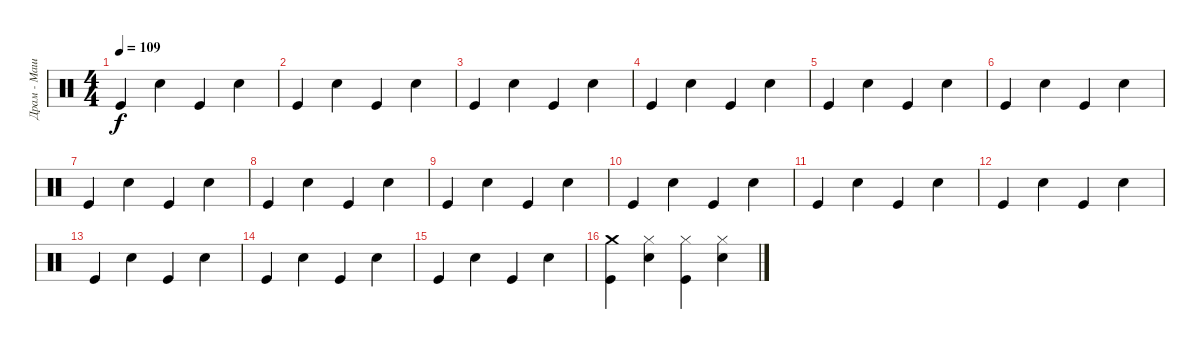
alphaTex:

\track ("Драм - Машина" "Драм - Маш") {instrument percussion}
\staff {score}
\articulation defaults
\ts (4 4)
\tempo 109
\clef neutral
\ks c "Kick (hit)".4{dy f} "Snare (hit) 2".4 "Kick (hit)".4 "Snare (hit) 2".4
|
"Kick (hit)".4 "Snare (hit) 2".4 "Kick (hit)".4 "Snare (hit) 2".4 |
"Kick (hit)".4 "Snare (hit) 2".4 "Kick (hit)".4 "Snare (hit) 2".4 |
"Kick (hit)".4 "Snare (hit) 2".4 "Kick (hit)".4 "Snare (hit) 2".4 |
"Kick (hit)".4 "Snare (hit) 2".4 "Kick (hit)".4 "Snare (hit) 2".4 |
"Kick (hit)".4 "Snare (hit) 2".4 "Kick (hit)".4 "Snare (hit) 2".4 |
"Kick (hit)".4 "Snare (hit) 2".4 "Kick (hit)".4 "Snare (hit) 2".4 |
"Kick (hit)".4 "Snare (hit) 2".4 "Kick (hit)".4 "Snare (hit) 2".4 |
"Kick (hit)".4 "Snare (hit) 2".4 "Kick (hit)".4 "Snare (hit) 2".4 |
"Kick (hit)".4 "Snare (hit) 2".4 "Kick (hit)".4 "Snare (hit) 2".4 |
"Kick (hit)".4 "Snare (hit) 2".4 "Kick (hit)".4 "Snare (hit) 2".4 |
"Kick (hit)".4 "Snare (hit) 2".4 "Kick (hit)".4 "Snare (hit) 2".4 |
"Kick (hit)".4 "Snare (hit) 2".4 "Kick (hit)".4 "Snare (hit) 2".4 |
"Kick (hit)".4 "Snare (hit) 2".4 "Kick (hit)".4 "Snare (hit) 2".4 |
"Kick (hit)".4 "Snare (hit) 2".4 "Kick (hit)".4 "Snare (hit) 2".4 |
("Crash medium (hit)" "Kick (hit)").4 ("Hi-Hat (closed)" "Snare (hit) 2").4 ("Hi-Hat (closed)" "Kick (hit)").4 ("Hi-Hat (closed)" "Snare (hit) 2").4
